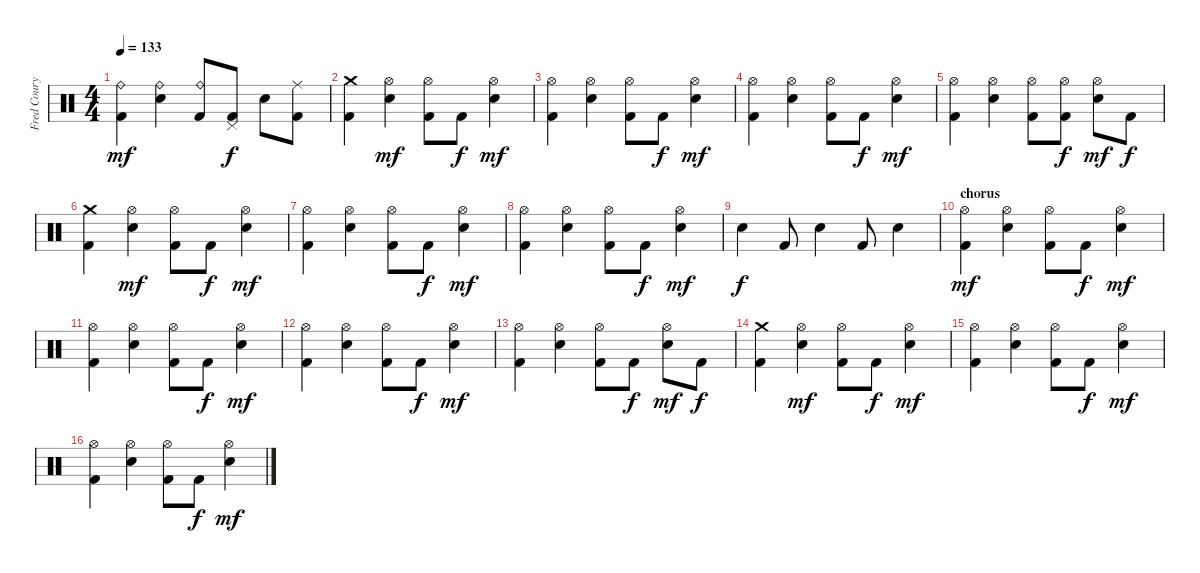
\track ("Fred Coury" "Fred Coury") {instrument percussion}
\staff {score}
\articulation defaults
\ts (4 4)
\tempo 133
\clef neutral
\ks c
("Kick (hit) 2" "Ride (bell)").4{dy mf} ("Ride (bell)" "Snare (hit) 2").4 ("Kick (hit) 2" "Ride (bell)").8 ("Kick (hit) 2" "Pedal Hi-Hat (hit)").8{dy f} "Snare (hit) 2".8 ("Kick (hit) 2" "Ride (middle)").8 |
("Kick (hit) 2" "Crash medium (hit)").4 ("Hi-Hat (open)" "Snare (hit) 2").4{dy mf} ("Kick (hit) 2" "Hi-Hat (open)").8 "Kick (hit) 2".8{dy f} ("Hi-Hat (open)" "Snare (hit) 2").4{dy mf} |
("Kick (hit) 2" "Hi-Hat (open)").4 ("Hi-Hat (open)" "Snare (hit) 2").4 ("Kick (hit) 2" "Hi-Hat (open)").8 "Kick (hit) 2".8{dy f} ("Hi-Hat (open)" "Snare (hit) 2").4{dy mf} |
("Kick (hit) 2" "Hi-Hat (open)").4 ("Hi-Hat (open)" "Snare (hit) 2").4 ("Kick (hit) 2" "Hi-Hat (open)").8 "Kick (hit) 2".8{dy f} ("Hi-Hat (open)" "Snare (hit) 2").4{dy mf} |
("Kick (hit) 2" "Hi-Hat (open)").4 ("Hi-Hat (open)" "Snare (hit) 2").4 ("Kick (hit) 2" "Hi-Hat (open)").8 ("Kick (hit) 2" "Hi-Hat (open)").8{dy f} ("Hi-Hat (open)" "Snare (hit) 2").8{dy mf} "Kick (hit) 2".8{dy f} |
("Kick (hit) 2" "Crash medium (hit)").4 ("Hi-Hat (open)" "Snare (hit) 2").4{dy mf} ("Kick (hit) 2" "Hi-Hat (open)").8 "Kick (hit) 2".8{dy f} ("Hi-Hat (open)" "Snare (hit) 2").4{dy mf} |
("Kick (hit) 2" "Hi-Hat (open)").4 ("Hi-Hat (open)" "Snare (hit) 2").4 ("Kick (hit) 2" "Hi-Hat (open)").8 "Kick (hit) 2".8{dy f} ("Hi-Hat (open)" "Snare (hit) 2").4{dy mf} |
("Kick (hit) 2" "Hi-Hat (open)").4 ("Hi-Hat (open)" "Snare (hit) 2").4 ("Kick (hit) 2" "Hi-Hat (open)").8 "Kick (hit) 2".8{dy f} ("Hi-Hat (open)" "Snare (hit) 2").4{dy mf} |
"Snare (hit) 2".4{dy f} "Kick (hit) 2".8 "Snare (hit) 2".4 "Kick (hit) 2".8 "Snare (hit) 2".4 |
\section ("" "chorus")
("Kick (hit) 2" "Hi-Hat (open)").4{dy mf} ("Hi-Hat (open)" "Snare (hit) 2").4 ("Kick (hit) 2" "Hi-Hat (open)").8 "Kick (hit) 2".8{dy f} ("Hi-Hat (open)" "Snare (hit) 2").4{dy mf} |
("Kick (hit) 2" "Hi-Hat (open)").4 ("Hi-Hat (open)" "Snare (hit) 2").4 ("Kick (hit) 2" "Hi-Hat (open)").8 "Kick (hit) 2".8{dy f} ("Hi-Hat (open)" "Snare (hit) 2").4{dy mf} |
("Kick (hit) 2" "Hi-Hat (open)").4 ("Hi-Hat (open)" "Snare (hit) 2").4 ("Kick (hit) 2" "Hi-Hat (open)").8 "Kick (hit) 2".8{dy f} ("Hi-Hat (open)" "Snare (hit) 2").4{dy mf} |
("Kick (hit) 2" "Hi-Hat (open)").4 ("Hi-Hat (open)" "Snare (hit) 2").4 ("Kick (hit) 2" "Hi-Hat (open)").8 "Kick (hit) 2".8{dy f} ("Hi-Hat (open)" "Snare (hit) 2").8{dy mf} "Kick (hit) 2".8{dy f} |
("Kick (hit) 2" "Crash medium (hit)").4 ("Hi-Hat (open)" "Snare (hit) 2").4{dy mf} ("Kick (hit) 2" "Hi-Hat (open)").8 "Kick (hit) 2".8{dy f} ("Hi-Hat (open)" "Snare (hit) 2").4{dy mf} |
("Kick (hit) 2" "Hi-Hat (open)").4 ("Hi-Hat (open)" "Snare (hit) 2").4 ("Kick (hit) 2" "Hi-Hat (open)").8 "Kick (hit) 2".8{dy f} ("Hi-Hat (open)" "Snare (hit) 2").4{dy mf} |
("Kick (hit) 2" "Hi-Hat (open)").4 ("Hi-Hat (open)" "Snare (hit) 2").4 ("Kick (hit) 2" "Hi-Hat (open)").8 "Kick (hit) 2".8{dy f} ("Hi-Hat (open)" "Snare (hit) 2").4{dy mf}
